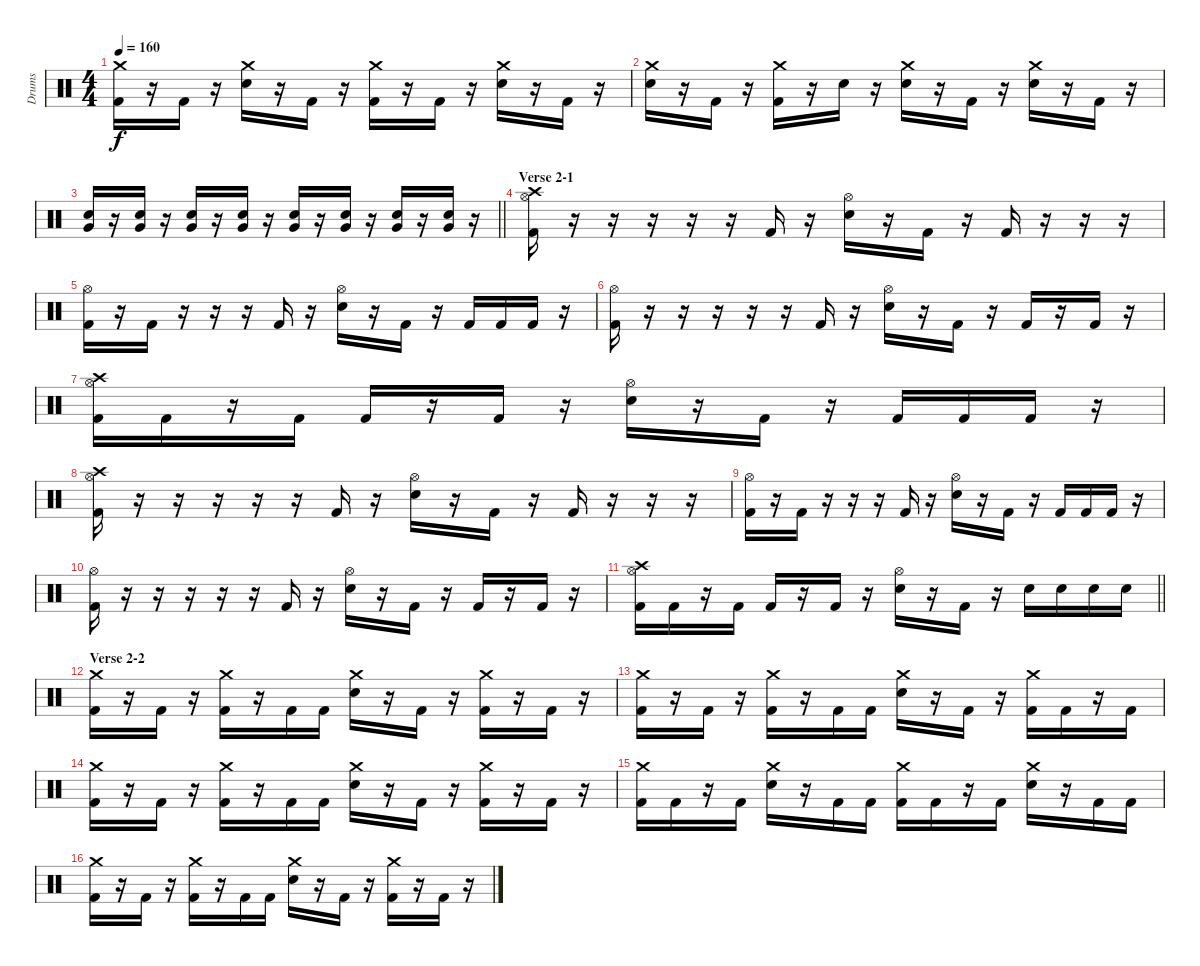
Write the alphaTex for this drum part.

\track ("Drums" "Drums") {instrument percussion}
\staff {score}
\articulation defaults
\ts (4 4)
\tempo 160
\clef neutral
\ks c
("Crash medium (hit)" "Kick (hit) 2").16{dy f} r.16 "Kick (hit) 2".16 r.16 ("Crash medium (hit)" "Electric Snare (hit)").16 r.16 "Kick (hit) 2".16 r.16 ("Crash medium (hit)" "Kick (hit) 2").16 r.16 "Kick (hit) 2".16 r.16 ("Crash medium (hit)" "Electric Snare (hit)").16 r.16 "Kick (hit) 2".16 r.16 |
("Crash medium (hit)" "Electric Snare (hit)").16 r.16 "Kick (hit) 2".16 r.16 ("Crash medium (hit)" "Kick (hit) 2").16 r.16 "Electric Snare (hit)".16 r.16 ("Crash medium (hit)" "Electric Snare (hit)").16 r.16 "Kick (hit) 2".16 r.16 ("Crash medium (hit)" "Electric Snare (hit)").16 r.16 "Kick (hit) 2".16 r.16 |
\barLineRight lightlight
("Very Low Tom (hit)" "Electric Snare (hit)").16{volume 8} r.16{volume 13} ("Very Low Tom (hit)" "Electric Snare (hit)").16 r.16 ("Very Low Tom (hit)" "Electric Snare (hit)").16 r.16 ("Very Low Tom (hit)" "Electric Snare (hit)").16 r.16 ("Very Low Tom (hit)" "Electric Snare (hit)").16 r.16 ("Very Low Tom (hit)" "Electric Snare (hit)").16 r.16 ("Very Low Tom (hit)" "Electric Snare (hit)").16 r.16 ("Very Low Tom (hit)" "Electric Snare (hit)").16 r.16 |
\section ("" "Verse 2-1")
("Crash high (hit)" "Hi-Hat (open)" "Kick (hit) 2").16 r.16 r.16 r.16 r.16 r.16 "Kick (hit) 2".16 r.16 ("Hi-Hat (open)" "Electric Snare (hit)").16 r.16 "Kick (hit) 2".16 r.16 "Kick (hit) 2".16 r.16 r.16 r.16 |
("Hi-Hat (open)" "Kick (hit) 2").16 r.16 "Kick (hit) 2".16 r.16 r.16 r.16 "Kick (hit) 2".16 r.16 ("Hi-Hat (open)" "Electric Snare (hit)").16 r.16 "Kick (hit) 2".16 r.16 "Kick (hit) 2".16 "Kick (hit) 2".16 "Kick (hit) 2".16 r.16 |
("Hi-Hat (open)" "Kick (hit) 2").16 r.16 r.16 r.16 r.16 r.16 "Kick (hit) 2".16 r.16 ("Hi-Hat (open)" "Electric Snare (hit)").16 r.16 "Kick (hit) 2".16 r.16 "Kick (hit) 2".16 r.16 "Kick (hit) 2".16 r.16 |
("Crash high (hit)" "Hi-Hat (open)" "Kick (hit) 2").16 "Kick (hit) 2".16 r.16 "Kick (hit) 2".16 "Kick (hit) 2".16 r.16 "Kick (hit) 2".16 r.16 ("Hi-Hat (open)" "Electric Snare (hit)").16 r.16 "Kick (hit) 2".16 r.16 "Kick (hit) 2".16 "Kick (hit) 2".16 "Kick (hit) 2".16 r.16 |
("Crash high (hit)" "Hi-Hat (open)" "Kick (hit) 2").16 r.16 r.16 r.16 r.16 r.16 "Kick (hit) 2".16 r.16 ("Hi-Hat (open)" "Electric Snare (hit)").16 r.16 "Kick (hit) 2".16 r.16 "Kick (hit) 2".16 r.16 r.16 r.16 |
("Hi-Hat (open)" "Kick (hit) 2").16 r.16 "Kick (hit) 2".16 r.16 r.16 r.16 "Kick (hit) 2".16 r.16 ("Hi-Hat (open)" "Electric Snare (hit)").16 r.16 "Kick (hit) 2".16 r.16 "Kick (hit) 2".16 "Kick (hit) 2".16 "Kick (hit) 2".16 r.16 |
("Hi-Hat (open)" "Kick (hit) 2").16 r.16 r.16 r.16 r.16 r.16 "Kick (hit) 2".16 r.16 ("Hi-Hat (open)" "Electric Snare (hit)").16 r.16 "Kick (hit) 2".16 r.16 "Kick (hit) 2".16 r.16 "Kick (hit) 2".16 r.16 |
\barLineRight lightlight
("Crash high (hit)" "Hi-Hat (open)" "Kick (hit) 2").16 "Kick (hit) 2".16 r.16 "Kick (hit) 2".16 "Kick (hit) 2".16 r.16 "Kick (hit) 2".16 r.16 ("Hi-Hat (open)" "Electric Snare (hit)").16 r.16 "Kick (hit) 2".16 r.16 "Electric Snare (hit)".16 "Electric Snare (hit)".16 "Electric Snare (hit)".16 "Electric Snare (hit)".16 |
\section ("" "Verse 2-2")
("Crash medium (hit)" "Kick (hit) 2").16 r.16 "Kick (hit) 2".16 r.16 ("Crash medium (hit)" "Kick (hit) 2").16 r.16 "Kick (hit) 2".16 "Kick (hit) 2".16 ("Crash medium (hit)" "Electric Snare (hit)").16 r.16 "Kick (hit) 2".16 r.16 ("Crash medium (hit)" "Kick (hit) 2").16 r.16 "Kick (hit) 2".16 r.16 |
("Crash medium (hit)" "Kick (hit) 2").16 r.16 "Kick (hit) 2".16 r.16 ("Crash medium (hit)" "Kick (hit) 2").16 r.16 "Kick (hit) 2".16 "Kick (hit) 2".16 ("Crash medium (hit)" "Electric Snare (hit)").16 r.16 "Kick (hit) 2".16 r.16 ("Crash medium (hit)" "Kick (hit) 2").16 "Kick (hit) 2".16 r.16 "Kick (hit) 2".16 |
("Crash medium (hit)" "Kick (hit) 2").16 r.16 "Kick (hit) 2".16 r.16 ("Crash medium (hit)" "Kick (hit) 2").16 r.16 "Kick (hit) 2".16 "Kick (hit) 2".16 ("Crash medium (hit)" "Electric Snare (hit)").16 r.16 "Kick (hit) 2".16 r.16 ("Crash medium (hit)" "Kick (hit) 2").16 r.16 "Kick (hit) 2".16 r.16 |
("Crash medium (hit)" "Kick (hit) 2").16 "Kick (hit) 2".16 r.16 "Kick (hit) 2".16 ("Crash medium (hit)" "Electric Snare (hit)").16 r.16 "Kick (hit) 2".16 "Kick (hit) 2".16 ("Crash medium (hit)" "Kick (hit) 2").16 "Kick (hit) 2".16 r.16 "Kick (hit) 2".16 ("Crash medium (hit)" "Electric Snare (hit)").16 r.16 "Kick (hit) 2".16 "Kick (hit) 2".16 |
("Crash medium (hit)" "Kick (hit) 2").16 r.16 "Kick (hit) 2".16 r.16 ("Crash medium (hit)" "Kick (hit) 2").16 r.16 "Kick (hit) 2".16 "Kick (hit) 2".16 ("Crash medium (hit)" "Electric Snare (hit)").16 r.16 "Kick (hit) 2".16 r.16 ("Crash medium (hit)" "Kick (hit) 2").16 r.16 "Kick (hit) 2".16 r.16
